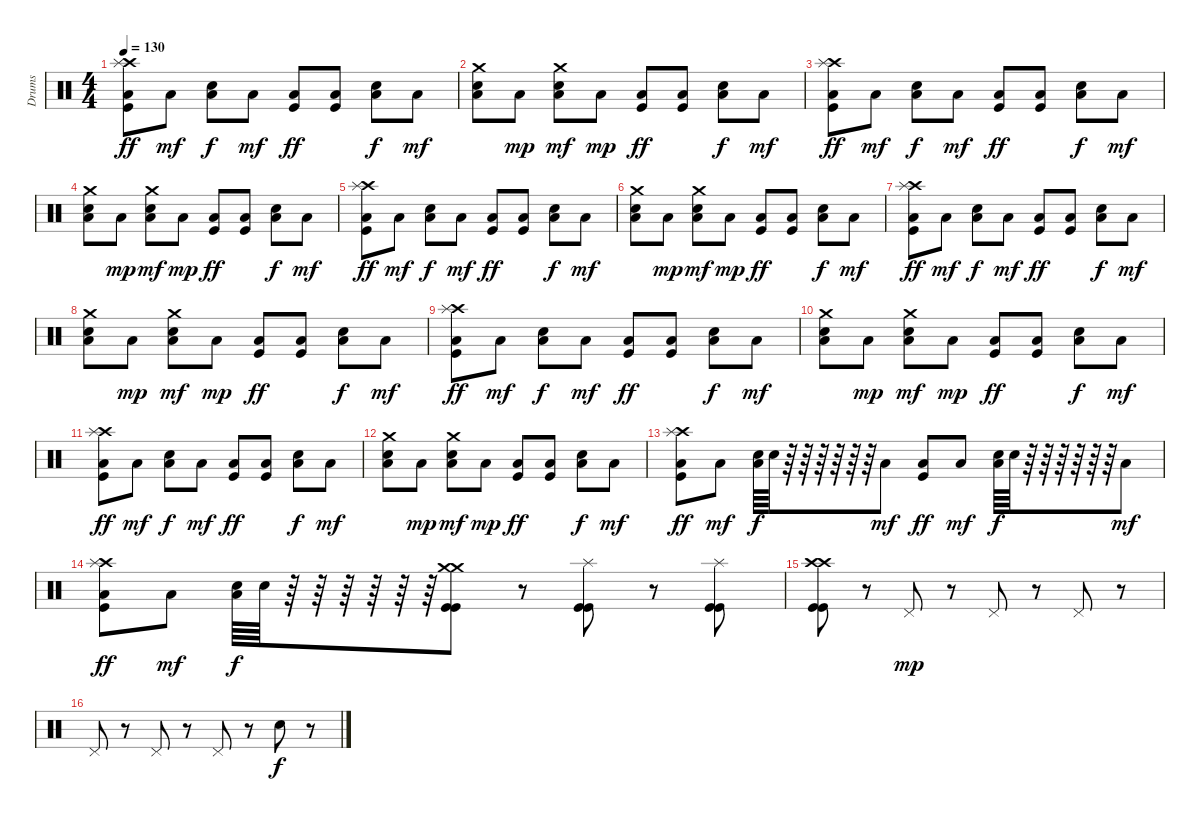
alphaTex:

\track ("Drums" "Drums") {instrument percussion}
\staff {score}
\articulation defaults
\ts (4 4)
\tempo 130
\clef neutral
\ks c
("Crash high (hit)" "Splash (hit)" "Low Floor Tom (hit)" "Kick (hit)").8{dy ff} "Low Floor Tom (hit)".8{dy mf} ("Snare (hit) 2" "Low Floor Tom (hit)").8{dy f} "Low Floor Tom (hit)".8{dy mf} ("Low Floor Tom (hit)" "Kick (hit)").8{dy ff} ("Low Floor Tom (hit)" "Kick (hit)").8 ("Snare (hit) 2" "Low Floor Tom (hit)").8{dy f} "Low Floor Tom (hit)".8{dy mf} |
("Crash medium (hit)" "Snare (hit) 2" "Low Floor Tom (hit)").8 "Low Floor Tom (hit)".8{dy mp} ("Crash medium (hit)" "Snare (hit) 2" "Low Floor Tom (hit)").8{dy mf} "Low Floor Tom (hit)".8{dy mp} ("Low Floor Tom (hit)" "Kick (hit)").8{dy ff} ("Low Floor Tom (hit)" "Kick (hit)").8 ("Snare (hit) 2" "Low Floor Tom (hit)").8{dy f} "Low Floor Tom (hit)".8{dy mf} |
("Crash high (hit)" "Splash (hit)" "Low Floor Tom (hit)" "Kick (hit)").8{dy ff} "Low Floor Tom (hit)".8{dy mf} ("Snare (hit) 2" "Low Floor Tom (hit)").8{dy f} "Low Floor Tom (hit)".8{dy mf} ("Low Floor Tom (hit)" "Kick (hit)").8{dy ff} ("Low Floor Tom (hit)" "Kick (hit)").8 ("Snare (hit) 2" "Low Floor Tom (hit)").8{dy f} "Low Floor Tom (hit)".8{dy mf} |
("Crash medium (hit)" "Snare (hit) 2" "Low Floor Tom (hit)").8 "Low Floor Tom (hit)".8{dy mp} ("Crash medium (hit)" "Snare (hit) 2" "Low Floor Tom (hit)").8{dy mf} "Low Floor Tom (hit)".8{dy mp} ("Low Floor Tom (hit)" "Kick (hit)").8{dy ff} ("Low Floor Tom (hit)" "Kick (hit)").8 ("Snare (hit) 2" "Low Floor Tom (hit)").8{dy f} "Low Floor Tom (hit)".8{dy mf} |
("Crash high (hit)" "Splash (hit)" "Low Floor Tom (hit)" "Kick (hit)").8{dy ff} "Low Floor Tom (hit)".8{dy mf} ("Snare (hit) 2" "Low Floor Tom (hit)").8{dy f} "Low Floor Tom (hit)".8{dy mf} ("Low Floor Tom (hit)" "Kick (hit)").8{dy ff} ("Low Floor Tom (hit)" "Kick (hit)").8 ("Snare (hit) 2" "Low Floor Tom (hit)").8{dy f} "Low Floor Tom (hit)".8{dy mf} |
("Crash medium (hit)" "Snare (hit) 2" "Low Floor Tom (hit)").8 "Low Floor Tom (hit)".8{dy mp} ("Crash medium (hit)" "Snare (hit) 2" "Low Floor Tom (hit)").8{dy mf} "Low Floor Tom (hit)".8{dy mp} ("Low Floor Tom (hit)" "Kick (hit)").8{dy ff} ("Low Floor Tom (hit)" "Kick (hit)").8 ("Snare (hit) 2" "Low Floor Tom (hit)").8{dy f} "Low Floor Tom (hit)".8{dy mf} |
("Crash high (hit)" "Splash (hit)" "Low Floor Tom (hit)" "Kick (hit)").8{dy ff} "Low Floor Tom (hit)".8{dy mf} ("Snare (hit) 2" "Low Floor Tom (hit)").8{dy f} "Low Floor Tom (hit)".8{dy mf} ("Low Floor Tom (hit)" "Kick (hit)").8{dy ff} ("Low Floor Tom (hit)" "Kick (hit)").8 ("Snare (hit) 2" "Low Floor Tom (hit)").8{dy f} "Low Floor Tom (hit)".8{dy mf} |
("Crash medium (hit)" "Snare (hit) 2" "Low Floor Tom (hit)").8 "Low Floor Tom (hit)".8{dy mp} ("Crash medium (hit)" "Snare (hit) 2" "Low Floor Tom (hit)").8{dy mf} "Low Floor Tom (hit)".8{dy mp} ("Low Floor Tom (hit)" "Kick (hit)").8{dy ff} ("Low Floor Tom (hit)" "Kick (hit)").8 ("Snare (hit) 2" "Low Floor Tom (hit)").8{dy f} "Low Floor Tom (hit)".8{dy mf} |
("Crash high (hit)" "Splash (hit)" "Low Floor Tom (hit)" "Kick (hit)").8{dy ff} "Low Floor Tom (hit)".8{dy mf} ("Snare (hit) 2" "Low Floor Tom (hit)").8{dy f} "Low Floor Tom (hit)".8{dy mf} ("Low Floor Tom (hit)" "Kick (hit)").8{dy ff} ("Low Floor Tom (hit)" "Kick (hit)").8 ("Snare (hit) 2" "Low Floor Tom (hit)").8{dy f} "Low Floor Tom (hit)".8{dy mf} |
("Crash medium (hit)" "Snare (hit) 2" "Low Floor Tom (hit)").8 "Low Floor Tom (hit)".8{dy mp} ("Crash medium (hit)" "Snare (hit) 2" "Low Floor Tom (hit)").8{dy mf} "Low Floor Tom (hit)".8{dy mp} ("Low Floor Tom (hit)" "Kick (hit)").8{dy ff} ("Low Floor Tom (hit)" "Kick (hit)").8 ("Snare (hit) 2" "Low Floor Tom (hit)").8{dy f} "Low Floor Tom (hit)".8{dy mf} |
("Crash high (hit)" "Splash (hit)" "Low Floor Tom (hit)" "Kick (hit)").8{dy ff} "Low Floor Tom (hit)".8{dy mf} ("Snare (hit) 2" "Low Floor Tom (hit)").8{dy f} "Low Floor Tom (hit)".8{dy mf} ("Low Floor Tom (hit)" "Kick (hit)").8{dy ff} ("Low Floor Tom (hit)" "Kick (hit)").8 ("Snare (hit) 2" "Low Floor Tom (hit)").8{dy f} "Low Floor Tom (hit)".8{dy mf} |
("Crash medium (hit)" "Snare (hit) 2" "Low Floor Tom (hit)").8 "Low Floor Tom (hit)".8{dy mp} ("Crash medium (hit)" "Snare (hit) 2" "Low Floor Tom (hit)").8{dy mf} "Low Floor Tom (hit)".8{dy mp} ("Low Floor Tom (hit)" "Kick (hit)").8{dy ff} ("Low Floor Tom (hit)" "Kick (hit)").8 ("Snare (hit) 2" "Low Floor Tom (hit)").8{dy f} "Low Floor Tom (hit)".8{dy mf} |
("Crash high (hit)" "Splash (hit)" "Low Floor Tom (hit)" "Kick (hit)").8{dy ff} "Low Floor Tom (hit)".8{dy mf} ("Snare (hit) 2" "Low Floor Tom (hit)").64{dy f} "Snare (hit) 2".64 r.64 r.64 r.64 r.64 r.64 r.64 "Low Floor Tom (hit)".8{dy mf} ("Low Floor Tom (hit)" "Kick (hit)").8{dy ff} "Low Floor Tom (hit)".8{dy mf} ("Snare (hit) 2" "Low Floor Tom (hit)").64{dy f} "Snare (hit) 2".64 r.64 r.64 r.64 r.64 r.64 r.64 "Low Floor Tom (hit)".8{dy mf} |
("Crash high (hit)" "Splash (hit)" "Low Floor Tom (hit)" "Kick (hit)").8{dy ff} "Low Floor Tom (hit)".8{dy mf} ("Snare (hit) 2" "Low Floor Tom (hit)").64{dy f} "Snare (hit) 2".64 r.64 r.64 r.64 r.64 r.64 r.64 ("Crash medium (hit)" "Crash medium (hit)" "Kick (hit)" "Kick (hit)").8 r.8 ("Splash (hit)" "Kick (hit)" "Kick (hit)").8 r.8 ("Splash (hit)" "Kick (hit)" "Kick (hit)").8 |
("Crash high (hit)" "Crash high (hit)" "Kick (hit)" "Kick (hit)").8 r.8 "Pedal Hi-Hat (hit)".8{dy mp} r.8 "Pedal Hi-Hat (hit)".8 r.8 "Pedal Hi-Hat (hit)".8 r.8 |
"Pedal Hi-Hat (hit)".8 r.8 "Pedal Hi-Hat (hit)".8 r.8 "Pedal Hi-Hat (hit)".8 r.8 "Snare (hit) 2".8{dy f} r.8
